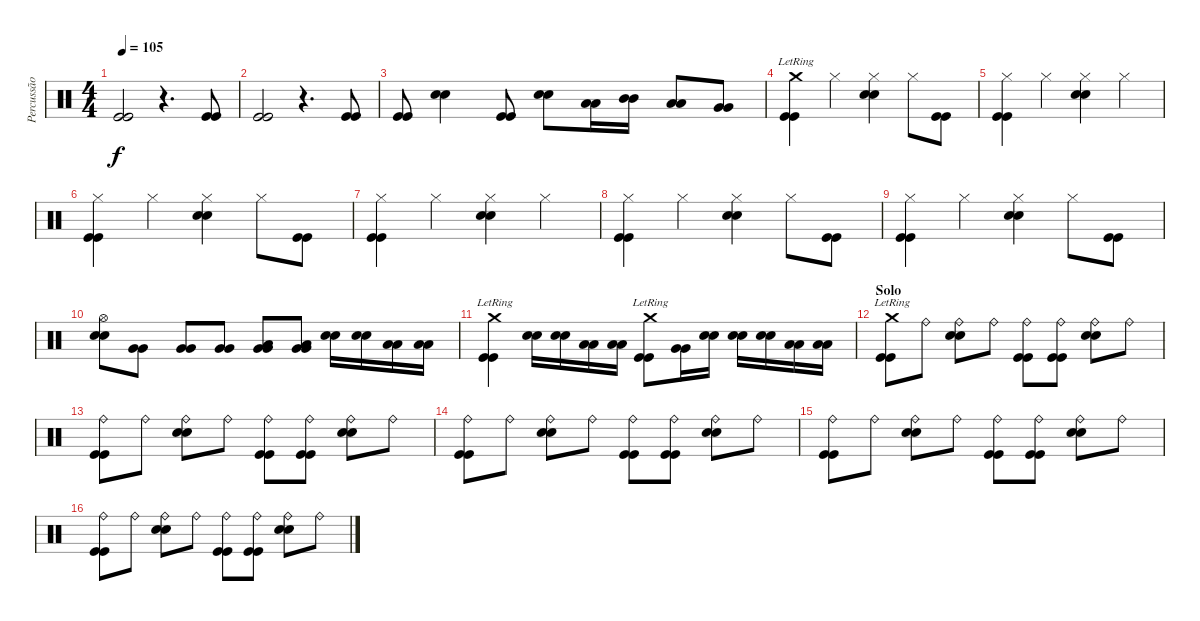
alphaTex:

\track ("Percussão" "Percussão") {instrument percussion}
\staff {score}
\articulation defaults
\ts (4 4)
\tempo 105
\clef neutral
\ks c
("Kick (hit)" "Kick (hit)").2{dy f} r.4{d} ("Kick (hit)" "Kick (hit)").8 |
("Kick (hit)" "Kick (hit)").2 r.4{d} ("Kick (hit)" "Kick (hit)").8 |
("Kick (hit)" "Kick (hit)").8 ("Electric Snare (hit)" "Electric Snare (hit)").4 ("Kick (hit)" "Kick (hit)").8 ("Electric Snare (hit)" "Electric Snare (hit)").8 ("Low Tom (hit)" "Low Tom (hit)").16 ("Mid Tom (hit)" "Mid Tom (hit)").16 ("Low Tom (hit)" "Low Tom (hit)").8 ("Very Low Tom (hit)" "Very Low Tom (hit)").8 |
("Crash medium (hit)"{lr} "Kick (hit)" "Kick (hit)").4 "Hi-Hat (closed)".4 ("Hi-Hat (closed)" "Electric Snare (hit)" "Electric Snare (hit)").4 "Hi-Hat (closed)".8 ("Kick (hit)" "Kick (hit)").8 |
("Hi-Hat (closed)" "Kick (hit)" "Kick (hit)").4 "Hi-Hat (closed)".4 ("Hi-Hat (closed)" "Electric Snare (hit)" "Electric Snare (hit)").4 "Hi-Hat (closed)".4 |
("Hi-Hat (closed)" "Kick (hit)" "Kick (hit)").4 "Hi-Hat (closed)".4 ("Hi-Hat (closed)" "Electric Snare (hit)" "Electric Snare (hit)").4 "Hi-Hat (closed)".8 ("Kick (hit)" "Kick (hit)").8 |
("Hi-Hat (closed)" "Kick (hit)" "Kick (hit)").4 "Hi-Hat (closed)".4 ("Hi-Hat (closed)" "Electric Snare (hit)" "Electric Snare (hit)").4 "Hi-Hat (closed)".4 |
("Hi-Hat (closed)" "Kick (hit)" "Kick (hit)").4 "Hi-Hat (closed)".4 ("Hi-Hat (closed)" "Electric Snare (hit)" "Electric Snare (hit)").4 "Hi-Hat (closed)".8 ("Kick (hit)" "Kick (hit)").8 |
("Hi-Hat (closed)" "Kick (hit)" "Kick (hit)").4 "Hi-Hat (closed)".4 ("Hi-Hat (closed)" "Electric Snare (hit)" "Electric Snare (hit)").4 "Hi-Hat (closed)".8 ("Kick (hit)" "Kick (hit)").8 |
("Hi-Hat (open)" "Electric Snare (hit)" "Electric Snare (hit)").8 ("Very Low Tom (hit)" "Very Low Tom (hit)").8 ("Very Low Tom (hit)" "Very Low Tom (hit)").8 ("Very Low Tom (hit)" "Very Low Tom (hit)").8 ("Low Tom (hit)" "Very Low Tom (hit)" "Very Low Tom (hit)").8 ("Low Tom (hit)" "Very Low Tom (hit)" "Very Low Tom (hit)").8 ("Electric Snare (hit)" "Electric Snare (hit)").16 ("Electric Snare (hit)" "Electric Snare (hit)").16 ("Low Tom (hit)" "Low Tom (hit)").16 ("Low Tom (hit)" "Low Tom (hit)").16 |
("Crash medium (hit)"{lr} "Kick (hit)" "Kick (hit)").4 ("Electric Snare (hit)" "Electric Snare (hit)").16 ("Electric Snare (hit)" "Electric Snare (hit)").16 ("Low Tom (hit)" "Low Tom (hit)").16 ("Low Tom (hit)" "Low Tom (hit)").16 ("Crash medium (hit)"{lr} "Kick (hit)" "Kick (hit)").8 ("Very Low Tom (hit)" "Very Low Tom (hit)").16 ("Electric Snare (hit)" "Electric Snare (hit)").16 ("Electric Snare (hit)" "Electric Snare (hit)").16 ("Electric Snare (hit)" "Electric Snare (hit)").16 ("Low Tom (hit)" "Low Tom (hit)").16 ("Low Tom (hit)" "Low Tom (hit)").16 |
\section ("" "Solo")
("Crash medium (hit)"{lr} "Kick (hit)" "Kick (hit)").8 "Ride (bell)".8 ("Ride (bell)" "Electric Snare (hit)" "Electric Snare (hit)").8 "Ride (bell)".8 ("Ride (bell)" "Kick (hit)" "Kick (hit)").8 ("Ride (bell)" "Kick (hit)" "Kick (hit)").8 ("Ride (bell)" "Electric Snare (hit)" "Electric Snare (hit)").8 "Ride (bell)".8 |
("Ride (bell)" "Kick (hit)" "Kick (hit)").8 "Ride (bell)".8 ("Ride (bell)" "Electric Snare (hit)" "Electric Snare (hit)").8 "Ride (bell)".8 ("Ride (bell)" "Kick (hit)" "Kick (hit)").8 ("Ride (bell)" "Kick (hit)" "Kick (hit)").8 ("Ride (bell)" "Electric Snare (hit)" "Electric Snare (hit)").8 "Ride (bell)".8 |
("Ride (bell)" "Kick (hit)" "Kick (hit)").8 "Ride (bell)".8 ("Ride (bell)" "Electric Snare (hit)" "Electric Snare (hit)").8 "Ride (bell)".8 ("Ride (bell)" "Kick (hit)" "Kick (hit)").8 ("Ride (bell)" "Kick (hit)" "Kick (hit)").8 ("Ride (bell)" "Electric Snare (hit)" "Electric Snare (hit)").8 "Ride (bell)".8 |
("Ride (bell)" "Kick (hit)" "Kick (hit)").8 "Ride (bell)".8 ("Ride (bell)" "Electric Snare (hit)" "Electric Snare (hit)").8 "Ride (bell)".8 ("Ride (bell)" "Kick (hit)" "Kick (hit)").8 ("Ride (bell)" "Kick (hit)" "Kick (hit)").8 ("Ride (bell)" "Electric Snare (hit)" "Electric Snare (hit)").8 "Ride (bell)".8 |
("Ride (bell)" "Kick (hit)" "Kick (hit)").8 "Ride (bell)".8 ("Ride (bell)" "Electric Snare (hit)" "Electric Snare (hit)").8 "Ride (bell)".8 ("Ride (bell)" "Kick (hit)" "Kick (hit)").8 ("Ride (bell)" "Kick (hit)" "Kick (hit)").8 ("Ride (bell)" "Electric Snare (hit)" "Electric Snare (hit)").8 "Ride (bell)".8
